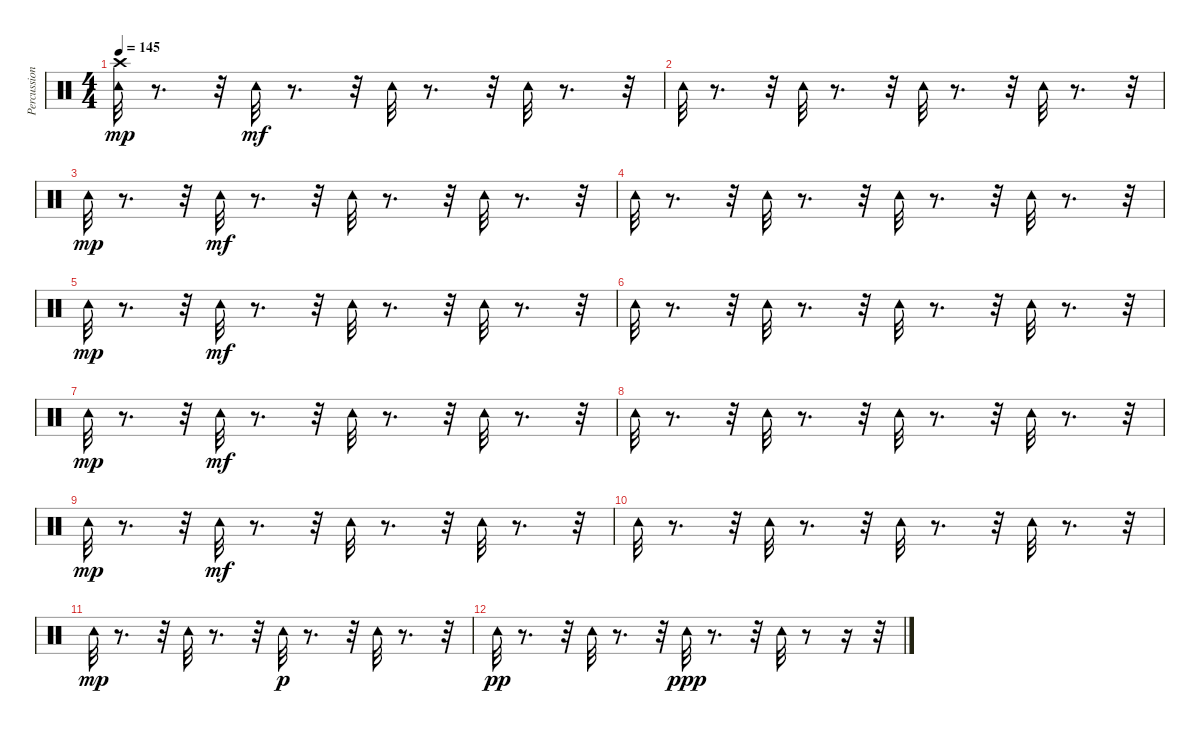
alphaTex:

\track ("Percussion" "Percussion") {instrument percussion}
\staff {score}
\articulation defaults
\ts (4 4)
\tempo 145
\clef neutral
\ks c
("Crash high (hit)" "Tambourine (hit)").32{dy mp} r.8{d} r.32 "Tambourine (hit)".32{dy mf} r.8{d} r.32 "Tambourine (hit)".32 r.8{d} r.32 "Tambourine (hit)".32 r.8{d} r.32 |
"Tambourine (hit)".32 r.8{d} r.32 "Tambourine (hit)".32 r.8{d} r.32 "Tambourine (hit)".32 r.8{d} r.32 "Tambourine (hit)".32 r.8{d} r.32 |
"Tambourine (hit)".32{dy mp} r.8{d} r.32 "Tambourine (hit)".32{dy mf} r.8{d} r.32 "Tambourine (hit)".32 r.8{d} r.32 "Tambourine (hit)".32 r.8{d} r.32 |
"Tambourine (hit)".32 r.8{d} r.32 "Tambourine (hit)".32 r.8{d} r.32 "Tambourine (hit)".32 r.8{d} r.32 "Tambourine (hit)".32 r.8{d} r.32 |
"Tambourine (hit)".32{dy mp} r.8{d} r.32 "Tambourine (hit)".32{dy mf} r.8{d} r.32 "Tambourine (hit)".32 r.8{d} r.32 "Tambourine (hit)".32 r.8{d} r.32 |
"Tambourine (hit)".32 r.8{d} r.32 "Tambourine (hit)".32 r.8{d} r.32 "Tambourine (hit)".32 r.8{d} r.32 "Tambourine (hit)".32 r.8{d} r.32 |
"Tambourine (hit)".32{dy mp} r.8{d} r.32 "Tambourine (hit)".32{dy mf} r.8{d} r.32 "Tambourine (hit)".32 r.8{d} r.32 "Tambourine (hit)".32 r.8{d} r.32 |
"Tambourine (hit)".32 r.8{d} r.32 "Tambourine (hit)".32 r.8{d} r.32 "Tambourine (hit)".32 r.8{d} r.32 "Tambourine (hit)".32 r.8{d} r.32 |
"Tambourine (hit)".32{dy mp} r.8{d} r.32 "Tambourine (hit)".32{dy mf} r.8{d} r.32 "Tambourine (hit)".32 r.8{d} r.32 "Tambourine (hit)".32 r.8{d} r.32 |
"Tambourine (hit)".32 r.8{d} r.32 "Tambourine (hit)".32 r.8{d} r.32 "Tambourine (hit)".32 r.8{d} r.32 "Tambourine (hit)".32 r.8{d} r.32 |
"Tambourine (hit)".32{dy mp} r.8{d} r.32 "Tambourine (hit)".32 r.8{d} r.32 "Tambourine (hit)".32{dy p} r.8{d} r.32 "Tambourine (hit)".32 r.8{d} r.32 |
"Tambourine (hit)".32{dy pp} r.8{d} r.32 "Tambourine (hit)".32 r.8{d} r.32 "Tambourine (hit)".32{dy ppp} r.8{d} r.32 "Tambourine (hit)".32 r.8 r.16 r.32
